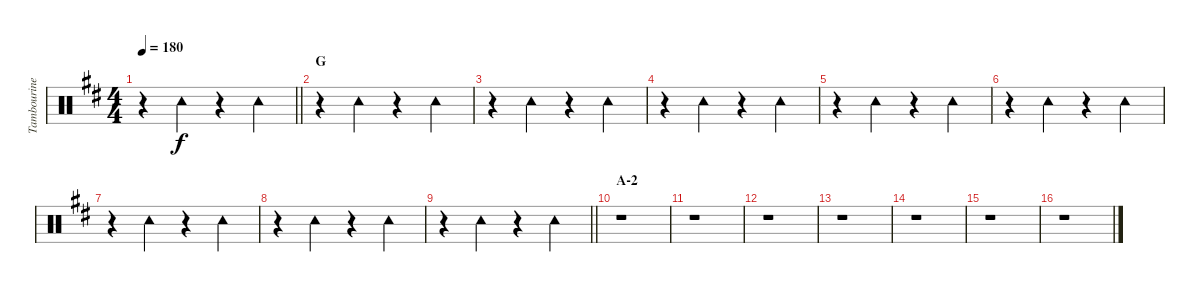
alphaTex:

\track ("Tambourine" "Tambourine") {instrument percussion}
\staff {score}
\articulation defaults
\ts (4 4)
\tempo 180
\clef neutral
\barLineRight lightlight
\ks d
r.4{dy f} "Tambourine (hit)".4 r.4 "Tambourine (hit)".4 |
\section ("" "G")
r.4 "Tambourine (hit)".4 r.4 "Tambourine (hit)".4 |
r.4 "Tambourine (hit)".4 r.4 "Tambourine (hit)".4 |
r.4 "Tambourine (hit)".4 r.4 "Tambourine (hit)".4 |
r.4 "Tambourine (hit)".4 r.4 "Tambourine (hit)".4 |
r.4 "Tambourine (hit)".4 r.4 "Tambourine (hit)".4 |
r.4 "Tambourine (hit)".4 r.4 "Tambourine (hit)".4 |
r.4 "Tambourine (hit)".4 r.4 "Tambourine (hit)".4 |
\barLineRight lightlight
r.4 "Tambourine (hit)".4 r.4 "Tambourine (hit)".4 |
\section ("" "A-2")
r.1 |
r.1 |
r.1 |
r.1 |
r.1 |
r.1 |
r.1
